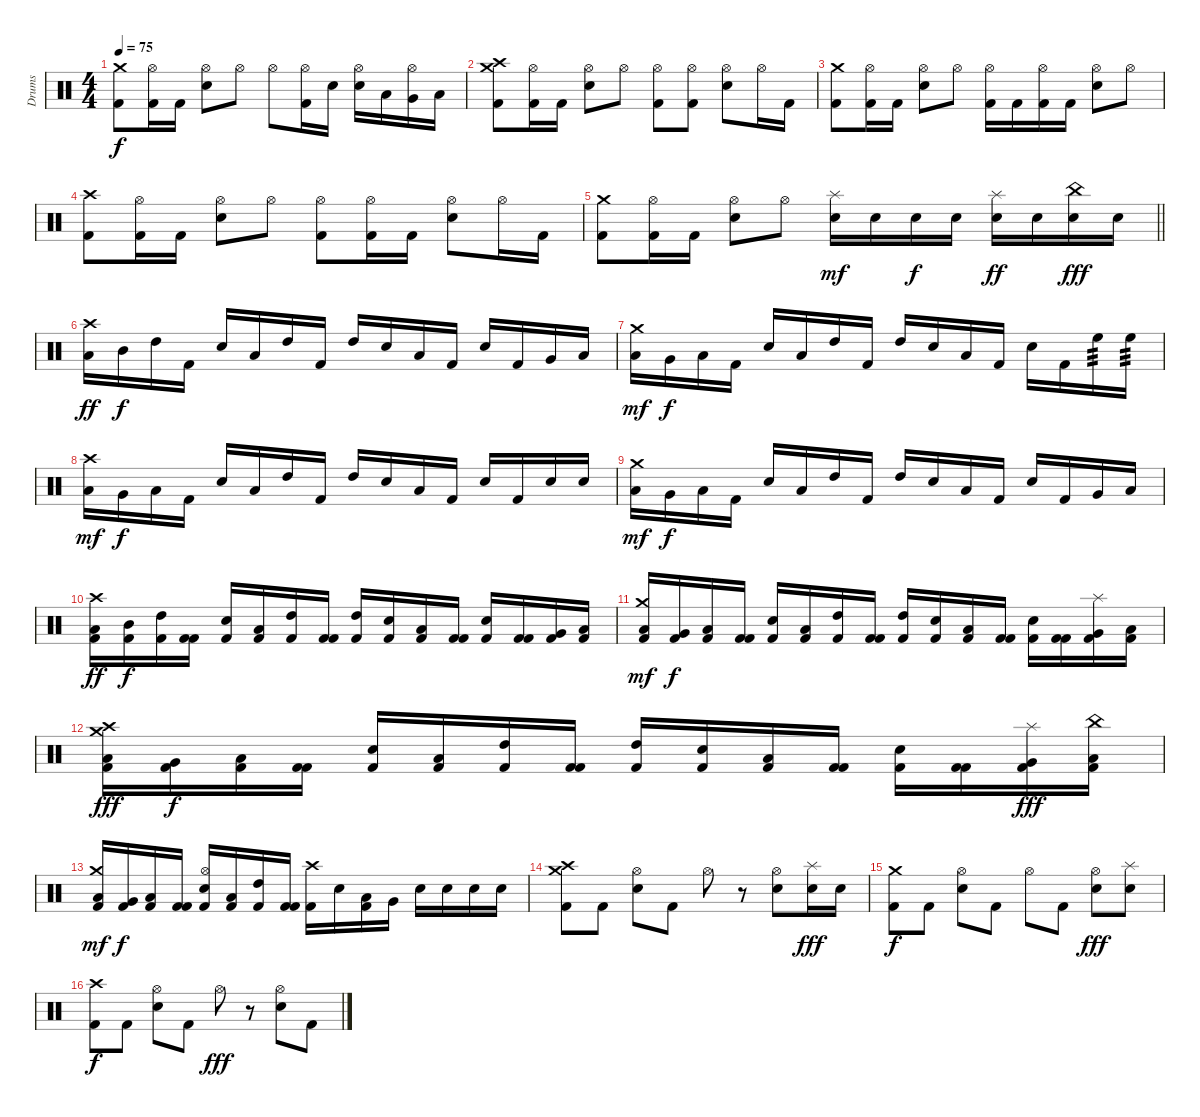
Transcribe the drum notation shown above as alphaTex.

\track ("Drums" "Drums") {instrument percussion}
\staff {score}
\articulation defaults
\ts (4 4)
\tempo 75
\clef neutral
\ks c
("Kick (hit) 2" "Crash medium (hit)").8{dy f} ("Kick (hit) 2" "Hi-Hat (open)").16 "Kick (hit) 2".16 ("Electric Snare (hit)" "Hi-Hat (open)").8 "Hi-Hat (open)".8 "Hi-Hat (open)".8 ("Kick (hit) 2" "Hi-Hat (open)").16 "Electric Snare (hit)".16 ("Electric Snare (hit)" "Hi-Hat (open)").16 "Low Tom (hit)".16 ("Very Low Tom (hit)" "Hi-Hat (open)").16 "Low Floor Tom (hit)".16 |
("Kick (hit) 2" "Crash high (hit)" "Crash medium (hit)").8 ("Kick (hit) 2" "Hi-Hat (open)").16 "Kick (hit) 2".16 ("Electric Snare (hit)" "Hi-Hat (open)").8 "Hi-Hat (open)".8 ("Kick (hit) 2" "Hi-Hat (open)").8 ("Kick (hit) 2" "Hi-Hat (open)").8 ("Electric Snare (hit)" "Hi-Hat (open)").8 "Hi-Hat (open)".16 "Kick (hit) 2".16 |
("Kick (hit) 2" "Crash medium (hit)").8 ("Kick (hit) 2" "Hi-Hat (open)").16 "Kick (hit) 2".16 ("Electric Snare (hit)" "Hi-Hat (open)").8 "Hi-Hat (open)".8 ("Kick (hit) 2" "Hi-Hat (open)").16 "Kick (hit) 2".16 ("Kick (hit) 2" "Hi-Hat (open)").16 "Kick (hit) 2".16 ("Electric Snare (hit)" "Hi-Hat (open)").8 "Hi-Hat (open)".8 |
("Kick (hit) 2" "Crash high (hit)").8 ("Kick (hit) 2" "Hi-Hat (open)").16 "Kick (hit) 2".16 ("Electric Snare (hit)" "Hi-Hat (open)").8 "Hi-Hat (open)".8 ("Kick (hit) 2" "Hi-Hat (open)").8 ("Kick (hit) 2" "Hi-Hat (open)").16 "Kick (hit) 2".16 ("Electric Snare (hit)" "Hi-Hat (open)").8 "Hi-Hat (open)".16 "Kick (hit) 2".16 |
\barLineRight lightlight
("Kick (hit) 2" "Crash medium (hit)").8 ("Kick (hit) 2" "Hi-Hat (open)").16 "Kick (hit) 2".16 ("Electric Snare (hit)" "Hi-Hat (open)").8 "Hi-Hat (open)".8 ("Electric Snare (hit)" "Splash (hit)").16{dy mf} "Electric Snare (hit)".16 "Electric Snare (hit)".16{dy f} "Electric Snare (hit)".16 ("Electric Snare (hit)" "Splash (hit)").16{dy ff} "Electric Snare (hit)".16 ("Electric Snare (hit)" "China (hit)").16{dy fff} "Electric Snare (hit)".16 |
("Low Tom (hit)" "Crash high (hit)").16{dy ff} "Mid Tom (hit)".16{dy f} "High Tom (hit)".16 "Kick (hit) 2".16 "Electric Snare (hit)".16 "Low Floor Tom (hit)".16 "High Tom (hit)".16 "Kick (hit) 2".16 "High Tom (hit)".16 "Electric Snare (hit)".16 "Low Tom (hit)".16 "Kick (hit) 2".16 "Electric Snare (hit)".16 "Kick (hit) 2".16 "Very Low Tom (hit)".16 "Low Floor Tom (hit)".16 |
("Low Tom (hit)" "Crash medium (hit)").16{dy mf} "Very Low Tom (hit)".16{dy f} "Low Floor Tom (hit)".16 "Kick (hit) 2".16 "Electric Snare (hit)".16 "Low Floor Tom (hit)".16 "High Tom (hit)".16 "Kick (hit) 2".16 "High Tom (hit)".16 "Electric Snare (hit)".16 "Low Tom (hit)".16 "Kick (hit) 2".16 "Electric Snare (hit)".16 "Kick (hit) 2".16 "High Floor Tom (hit)".16{tp 3} "High Floor Tom (hit)".16{tp 3} |
("Low Tom (hit)" "Crash high (hit)").16{dy mf} "Very Low Tom (hit)".16{dy f} "Low Floor Tom (hit)".16 "Kick (hit) 2".16 "Electric Snare (hit)".16 "Low Floor Tom (hit)".16 "High Tom (hit)".16 "Kick (hit) 2".16 "High Tom (hit)".16 "Electric Snare (hit)".16 "Low Tom (hit)".16 "Kick (hit) 2".16 "Electric Snare (hit)".16 "Kick (hit) 2".16 "Electric Snare (hit)".16 "Electric Snare (hit)".16 |
("Low Tom (hit)" "Crash medium (hit)").16{dy mf} "Very Low Tom (hit)".16{dy f} "Low Floor Tom (hit)".16 "Kick (hit) 2".16 "Electric Snare (hit)".16 "Low Floor Tom (hit)".16 "High Tom (hit)".16 "Kick (hit) 2".16 "High Tom (hit)".16 "Electric Snare (hit)".16 "Low Tom (hit)".16 "Kick (hit) 2".16 "Electric Snare (hit)".16 "Kick (hit) 2".16 "Very Low Tom (hit)".16 "Low Floor Tom (hit)".16 |
("Low Tom (hit)" "Crash high (hit)" "Kick (hit) 2").16{dy ff} ("Mid Tom (hit)" "Kick (hit) 2").16{dy f} ("High Tom (hit)" "Kick (hit) 2").16 ("Kick (hit) 2" "Kick (hit) 2").16 ("Electric Snare (hit)" "Kick (hit) 2").16 ("Low Floor Tom (hit)" "Kick (hit) 2").16 ("High Tom (hit)" "Kick (hit) 2").16 ("Kick (hit) 2" "Kick (hit) 2").16 ("High Tom (hit)" "Kick (hit) 2").16 ("Electric Snare (hit)" "Kick (hit) 2").16 ("Low Tom (hit)" "Kick (hit) 2").16 ("Kick (hit) 2" "Kick (hit) 2").16 ("Electric Snare (hit)" "Kick (hit) 2").16 ("Kick (hit) 2" "Kick (hit) 2").16 ("Very Low Tom (hit)" "Kick (hit) 2").16 ("Low Floor Tom (hit)" "Kick (hit) 2").16 |
("Low Tom (hit)" "Crash medium (hit)" "Kick (hit) 2").16{dy mf} ("Very Low Tom (hit)" "Kick (hit) 2").16{dy f} ("Low Floor Tom (hit)" "Kick (hit) 2").16 ("Kick (hit) 2" "Kick (hit) 2").16 ("Electric Snare (hit)" "Kick (hit) 2").16 ("Low Floor Tom (hit)" "Kick (hit) 2").16 ("High Tom (hit)" "Kick (hit) 2").16 ("Kick (hit) 2" "Kick (hit) 2").16 ("High Tom (hit)" "Kick (hit) 2").16 ("Electric Snare (hit)" "Kick (hit) 2").16 ("Low Tom (hit)" "Kick (hit) 2").16 ("Kick (hit) 2" "Kick (hit) 2").16 ("Electric Snare (hit)" "Kick (hit) 2").16 ("Kick (hit) 2" "Kick (hit) 2").16 ("Very Low Tom (hit)" "Splash (hit)" "Kick (hit) 2").16 ("Low Floor Tom (hit)" "Kick (hit) 2").16 |
("Low Tom (hit)" "Crash high (hit)" "Crash medium (hit)" "Kick (hit) 2").16{dy fff} ("Very Low Tom (hit)" "Kick (hit) 2").16{dy f} ("Low Floor Tom (hit)" "Kick (hit) 2").16 ("Kick (hit) 2" "Kick (hit) 2").16 ("Electric Snare (hit)" "Kick (hit) 2").16 ("Low Floor Tom (hit)" "Kick (hit) 2").16 ("High Tom (hit)" "Kick (hit) 2").16 ("Kick (hit) 2" "Kick (hit) 2").16 ("High Tom (hit)" "Kick (hit) 2").16 ("Electric Snare (hit)" "Kick (hit) 2").16 ("Low Tom (hit)" "Kick (hit) 2").16 ("Kick (hit) 2" "Kick (hit) 2").16 ("Electric Snare (hit)" "Kick (hit) 2").16 ("Kick (hit) 2" "Kick (hit) 2").16 ("Very Low Tom (hit)" "Splash (hit)" "Kick (hit) 2").16{dy fff} ("Low Floor Tom (hit)" "China (hit)" "Kick (hit) 2").16 |
("Low Tom (hit)" "Crash medium (hit)" "Kick (hit) 2").16{dy mf} ("Very Low Tom (hit)" "Kick (hit) 2").16{dy f} ("Low Floor Tom (hit)" "Kick (hit) 2").16 ("Kick (hit) 2" "Kick (hit) 2").16 ("Electric Snare (hit)" "Hi-Hat (open)" "Kick (hit) 2").16 ("Low Floor Tom (hit)" "Kick (hit) 2").16 ("High Tom (hit)" "Kick (hit) 2").16 ("Kick (hit) 2" "Kick (hit) 2").16 ("Crash high (hit)" "Kick (hit) 2").16 "Electric Snare (hit)".16 ("Low Tom (hit)" "Kick (hit) 2").16 "Very Low Tom (hit)".16 "Electric Snare (hit)".16 "Electric Snare (hit)".16 "Electric Snare (hit)".16 "Electric Snare (hit)".16 |
("Kick (hit) 2" "Crash high (hit)" "Crash medium (hit)").8 "Kick (hit) 2".8 ("Electric Snare (hit)" "Hi-Hat (open)").8 "Kick (hit) 2".8 "Hi-Hat (open)".8 r.8 ("Electric Snare (hit)" "Hi-Hat (open)").8 ("Electric Snare (hit)" "Splash (hit)").16{dy fff} "Electric Snare (hit)".16 |
("Kick (hit) 2" "Crash medium (hit)").8{dy f} "Kick (hit) 2".8 ("Electric Snare (hit)" "Hi-Hat (open)").8 "Kick (hit) 2".8 "Hi-Hat (open)".8 "Kick (hit) 2".8 ("Electric Snare (hit)" "Hi-Hat (open)").8{dy fff} ("Electric Snare (hit)" "Splash (hit)").8 |
("Kick (hit) 2" "Crash high (hit)").8{dy f} "Kick (hit) 2".8 ("Electric Snare (hit)" "Hi-Hat (open)").8 "Kick (hit) 2".8 "Hi-Hat (open)".8{dy fff} r.8 ("Electric Snare (hit)" "Hi-Hat (open)").8 "Kick (hit) 2".8
